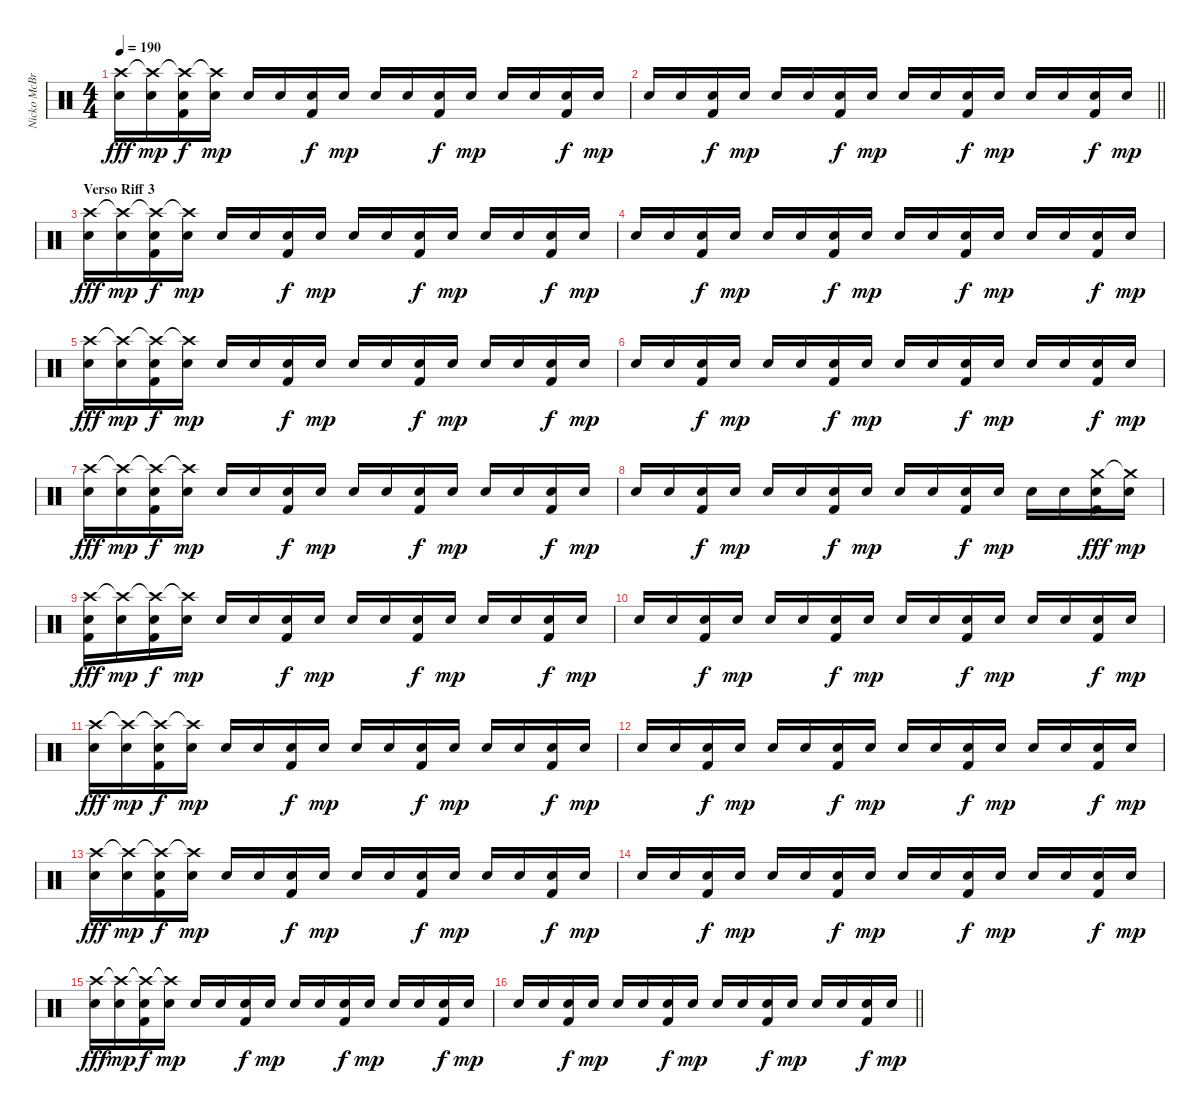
\track ("Nicko McBrain" "Nicko McBr") {instrument percussion}
\staff {score}
\articulation defaults
\ts (4 4)
\tempo 190
\clef neutral
\ks c
("Snare (hit) 2" "Crash high (hit)").16{dy fff} ("Snare (hit) 2" "Crash high (hit)"{t}).16{dy mp} ("Snare (hit) 2" "Crash high (hit)"{t} "Kick (hit) 2").16{dy f} ("Snare (hit) 2" "Crash high (hit)"{t}).16{dy mp} "Snare (hit) 2".16 "Snare (hit) 2".16 ("Snare (hit) 2" "Kick (hit) 2").16{dy f} "Snare (hit) 2".16{dy mp} "Snare (hit) 2".16 "Snare (hit) 2".16 ("Snare (hit) 2" "Kick (hit) 2").16{dy f} "Snare (hit) 2".16{dy mp} "Snare (hit) 2".16 "Snare (hit) 2".16 ("Snare (hit) 2" "Kick (hit) 2").16{dy f} "Snare (hit) 2".16{dy mp} |
\barLineRight lightlight "Snare (hit) 2".16 "Snare (hit) 2".16
("Snare (hit) 2" "Kick (hit) 2").16{dy f} "Snare (hit) 2".16{dy mp} "Snare (hit) 2".16 "Snare (hit) 2".16 ("Snare (hit) 2" "Kick (hit) 2").16{dy f} "Snare (hit) 2".16{dy mp} "Snare (hit) 2".16 "Snare (hit) 2".16 ("Snare (hit) 2" "Kick (hit) 2").16{dy f} "Snare (hit) 2".16{dy mp} "Snare (hit) 2".16 "Snare (hit) 2".16 ("Snare (hit) 2" "Kick (hit) 2").16{dy f} "Snare (hit) 2".16{dy mp} |
\section ("" "Verso Riff 3")
("Snare (hit) 2" "Crash high (hit)").16{dy fff} ("Snare (hit) 2" "Crash high (hit)"{t}).16{dy mp} ("Snare (hit) 2" "Crash high (hit)"{t} "Kick (hit) 2").16{dy f} ("Snare (hit) 2" "Crash high (hit)"{t}).16{dy mp} "Snare (hit) 2".16 "Snare (hit) 2".16 ("Snare (hit) 2" "Kick (hit) 2").16{dy f} "Snare (hit) 2".16{dy mp} "Snare (hit) 2".16 "Snare (hit) 2".16 ("Snare (hit) 2" "Kick (hit) 2").16{dy f} "Snare (hit) 2".16{dy mp} "Snare (hit) 2".16 "Snare (hit) 2".16 ("Snare (hit) 2" "Kick (hit) 2").16{dy f} "Snare (hit) 2".16{dy mp} |
"Snare (hit) 2".16 "Snare (hit) 2".16 ("Snare (hit) 2" "Kick (hit) 2").16{dy f} "Snare (hit) 2".16{dy mp} "Snare (hit) 2".16 "Snare (hit) 2".16 ("Snare (hit) 2" "Kick (hit) 2").16{dy f} "Snare (hit) 2".16{dy mp} "Snare (hit) 2".16 "Snare (hit) 2".16 ("Snare (hit) 2" "Kick (hit) 2").16{dy f} "Snare (hit) 2".16{dy mp} "Snare (hit) 2".16 "Snare (hit) 2".16 ("Snare (hit) 2" "Kick (hit) 2").16{dy f} "Snare (hit) 2".16{dy mp} |
("Snare (hit) 2" "Crash high (hit)").16{dy fff} ("Snare (hit) 2" "Crash high (hit)"{t}).16{dy mp} ("Snare (hit) 2" "Crash high (hit)"{t} "Kick (hit) 2").16{dy f} ("Snare (hit) 2" "Crash high (hit)"{t}).16{dy mp} "Snare (hit) 2".16 "Snare (hit) 2".16 ("Snare (hit) 2" "Kick (hit) 2").16{dy f} "Snare (hit) 2".16{dy mp} "Snare (hit) 2".16 "Snare (hit) 2".16 ("Snare (hit) 2" "Kick (hit) 2").16{dy f} "Snare (hit) 2".16{dy mp} "Snare (hit) 2".16 "Snare (hit) 2".16 ("Snare (hit) 2" "Kick (hit) 2").16{dy f} "Snare (hit) 2".16{dy mp} |
"Snare (hit) 2".16 "Snare (hit) 2".16 ("Snare (hit) 2" "Kick (hit) 2").16{dy f} "Snare (hit) 2".16{dy mp} "Snare (hit) 2".16 "Snare (hit) 2".16 ("Snare (hit) 2" "Kick (hit) 2").16{dy f} "Snare (hit) 2".16{dy mp} "Snare (hit) 2".16 "Snare (hit) 2".16 ("Snare (hit) 2" "Kick (hit) 2").16{dy f} "Snare (hit) 2".16{dy mp} "Snare (hit) 2".16 "Snare (hit) 2".16 ("Snare (hit) 2" "Kick (hit) 2").16{dy f} "Snare (hit) 2".16{dy mp} |
("Snare (hit) 2" "Crash high (hit)").16{dy fff} ("Snare (hit) 2" "Crash high (hit)"{t}).16{dy mp} ("Snare (hit) 2" "Crash high (hit)"{t} "Kick (hit) 2").16{dy f} ("Snare (hit) 2" "Crash high (hit)"{t}).16{dy mp} "Snare (hit) 2".16 "Snare (hit) 2".16 ("Snare (hit) 2" "Kick (hit) 2").16{dy f} "Snare (hit) 2".16{dy mp} "Snare (hit) 2".16 "Snare (hit) 2".16 ("Snare (hit) 2" "Kick (hit) 2").16{dy f} "Snare (hit) 2".16{dy mp} "Snare (hit) 2".16 "Snare (hit) 2".16 ("Snare (hit) 2" "Kick (hit) 2").16{dy f} "Snare (hit) 2".16{dy mp} |
"Snare (hit) 2".16 "Snare (hit) 2".16 ("Snare (hit) 2" "Kick (hit) 2").16{dy f} "Snare (hit) 2".16{dy mp} "Snare (hit) 2".16 "Snare (hit) 2".16 ("Snare (hit) 2" "Kick (hit) 2").16{dy f} "Snare (hit) 2".16{dy mp} "Snare (hit) 2".16 "Snare (hit) 2".16 ("Snare (hit) 2" "Kick (hit) 2").16{dy f} "Snare (hit) 2".16{dy mp} "Snare (hit) 2".16 "Snare (hit) 2".16 ("Snare (hit) 2" "Crash medium (hit)" "Kick (hit) 2").16{dy fff} ("Snare (hit) 2" "Crash medium (hit)"{t}).16{dy mp} |
("Snare (hit) 2" "Crash high (hit)" "Kick (hit) 2").16{dy fff} ("Snare (hit) 2" "Crash high (hit)"{t}).16{dy mp} ("Snare (hit) 2" "Crash high (hit)"{t} "Kick (hit) 2").16{dy f} ("Snare (hit) 2" "Crash high (hit)"{t}).16{dy mp} "Snare (hit) 2".16 "Snare (hit) 2".16 ("Snare (hit) 2" "Kick (hit) 2").16{dy f} "Snare (hit) 2".16{dy mp} "Snare (hit) 2".16 "Snare (hit) 2".16 ("Snare (hit) 2" "Kick (hit) 2").16{dy f} "Snare (hit) 2".16{dy mp} "Snare (hit) 2".16 "Snare (hit) 2".16 ("Snare (hit) 2" "Kick (hit) 2").16{dy f} "Snare (hit) 2".16{dy mp} |
"Snare (hit) 2".16 "Snare (hit) 2".16 ("Snare (hit) 2" "Kick (hit) 2").16{dy f} "Snare (hit) 2".16{dy mp} "Snare (hit) 2".16 "Snare (hit) 2".16 ("Snare (hit) 2" "Kick (hit) 2").16{dy f} "Snare (hit) 2".16{dy mp} "Snare (hit) 2".16 "Snare (hit) 2".16 ("Snare (hit) 2" "Kick (hit) 2").16{dy f} "Snare (hit) 2".16{dy mp} "Snare (hit) 2".16 "Snare (hit) 2".16 ("Snare (hit) 2" "Kick (hit) 2").16{dy f} "Snare (hit) 2".16{dy mp} |
("Snare (hit) 2" "Crash high (hit)").16{dy fff} ("Snare (hit) 2" "Crash high (hit)"{t}).16{dy mp} ("Snare (hit) 2" "Crash high (hit)"{t} "Kick (hit) 2").16{dy f} ("Snare (hit) 2" "Crash high (hit)"{t}).16{dy mp} "Snare (hit) 2".16 "Snare (hit) 2".16 ("Snare (hit) 2" "Kick (hit) 2").16{dy f} "Snare (hit) 2".16{dy mp} "Snare (hit) 2".16 "Snare (hit) 2".16 ("Snare (hit) 2" "Kick (hit) 2").16{dy f} "Snare (hit) 2".16{dy mp} "Snare (hit) 2".16 "Snare (hit) 2".16 ("Snare (hit) 2" "Kick (hit) 2").16{dy f} "Snare (hit) 2".16{dy mp} |
"Snare (hit) 2".16 "Snare (hit) 2".16 ("Snare (hit) 2" "Kick (hit) 2").16{dy f} "Snare (hit) 2".16{dy mp} "Snare (hit) 2".16 "Snare (hit) 2".16 ("Snare (hit) 2" "Kick (hit) 2").16{dy f} "Snare (hit) 2".16{dy mp} "Snare (hit) 2".16 "Snare (hit) 2".16 ("Snare (hit) 2" "Kick (hit) 2").16{dy f} "Snare (hit) 2".16{dy mp} "Snare (hit) 2".16 "Snare (hit) 2".16 ("Snare (hit) 2" "Kick (hit) 2").16{dy f} "Snare (hit) 2".16{dy mp} |
("Snare (hit) 2" "Crash high (hit)").16{dy fff} ("Snare (hit) 2" "Crash high (hit)"{t}).16{dy mp} ("Snare (hit) 2" "Crash high (hit)"{t} "Kick (hit) 2").16{dy f} ("Snare (hit) 2" "Crash high (hit)"{t}).16{dy mp} "Snare (hit) 2".16 "Snare (hit) 2".16 ("Snare (hit) 2" "Kick (hit) 2").16{dy f} "Snare (hit) 2".16{dy mp} "Snare (hit) 2".16 "Snare (hit) 2".16 ("Snare (hit) 2" "Kick (hit) 2").16{dy f} "Snare (hit) 2".16{dy mp} "Snare (hit) 2".16 "Snare (hit) 2".16 ("Snare (hit) 2" "Kick (hit) 2").16{dy f} "Snare (hit) 2".16{dy mp} |
"Snare (hit) 2".16 "Snare (hit) 2".16 ("Snare (hit) 2" "Kick (hit) 2").16{dy f} "Snare (hit) 2".16{dy mp} "Snare (hit) 2".16 "Snare (hit) 2".16 ("Snare (hit) 2" "Kick (hit) 2").16{dy f} "Snare (hit) 2".16{dy mp} "Snare (hit) 2".16 "Snare (hit) 2".16 ("Snare (hit) 2" "Kick (hit) 2").16{dy f} "Snare (hit) 2".16{dy mp} "Snare (hit) 2".16 "Snare (hit) 2".16 ("Snare (hit) 2" "Kick (hit) 2").16{dy f} "Snare (hit) 2".16{dy mp} |
("Snare (hit) 2" "Crash high (hit)").16{dy fff} ("Snare (hit) 2" "Crash high (hit)"{t}).16{dy mp} ("Snare (hit) 2" "Crash high (hit)"{t} "Kick (hit) 2").16{dy f} ("Snare (hit) 2" "Crash high (hit)"{t}).16{dy mp} "Snare (hit) 2".16 "Snare (hit) 2".16 ("Snare (hit) 2" "Kick (hit) 2").16{dy f} "Snare (hit) 2".16{dy mp} "Snare (hit) 2".16 "Snare (hit) 2".16 ("Snare (hit) 2" "Kick (hit) 2").16{dy f} "Snare (hit) 2".16{dy mp} "Snare (hit) 2".16 "Snare (hit) 2".16 ("Snare (hit) 2" "Kick (hit) 2").16{dy f} "Snare (hit) 2".16{dy mp} |
\barLineRight lightlight "Snare (hit) 2".16 "Snare (hit) 2".16
("Snare (hit) 2" "Kick (hit) 2").16{dy f} "Snare (hit) 2".16{dy mp} "Snare (hit) 2".16 "Snare (hit) 2".16 ("Snare (hit) 2" "Kick (hit) 2").16{dy f} "Snare (hit) 2".16{dy mp} "Snare (hit) 2".16 "Snare (hit) 2".16 ("Snare (hit) 2" "Kick (hit) 2").16{dy f} "Snare (hit) 2".16{dy mp} "Snare (hit) 2".16 "Snare (hit) 2".16 ("Snare (hit) 2" "Kick (hit) 2").16{dy f} "Snare (hit) 2".16{dy mp}
